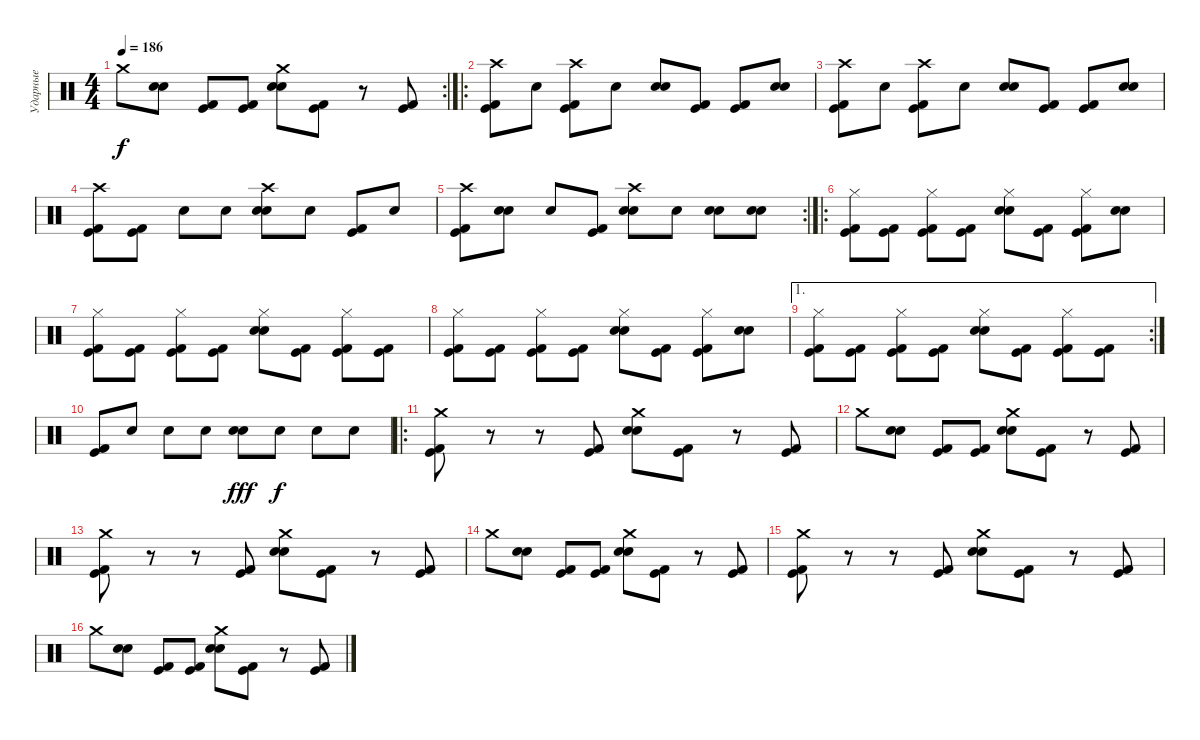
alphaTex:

\track ("Ударные" "Ударные") {instrument percussion}
\staff {score}
\articulation defaults
\rc 2
\ts (4 4)
\tempo 186
\clef neutral
\ks c "Crash medium (hit)".8{dy f}
("Electric Snare (hit)" "Snare (hit) 2").8 ("Kick (hit) 2" "Kick (hit)").8 ("Kick (hit) 2" "Kick (hit)").8 ("Electric Snare (hit)" "Snare (hit) 2" "Crash medium (hit)").8 ("Kick (hit) 2" "Kick (hit)").8 r.8 ("Kick (hit) 2" "Kick (hit)").8 |
\ro
("Kick (hit) 2" "Kick (hit)" "Crash high (hit)").8 "Snare (hit)".8 ("Kick (hit) 2" "Kick (hit)" "Crash high (hit)").8 "Snare (hit)".8 ("Electric Snare (hit)" "Snare (hit) 2").8 ("Kick (hit) 2" "Kick (hit)").8 ("Kick (hit) 2" "Kick (hit)").8 ("Electric Snare (hit)" "Snare (hit) 2").8 |
("Kick (hit) 2" "Kick (hit)" "Crash high (hit)").8 "Snare (hit)".8 ("Kick (hit) 2" "Kick (hit)" "Crash high (hit)").8 "Snare (hit)".8 ("Electric Snare (hit)" "Snare (hit) 2").8 ("Kick (hit) 2" "Kick (hit)").8 ("Kick (hit) 2" "Kick (hit)").8 ("Electric Snare (hit)" "Snare (hit) 2").8 |
("Kick (hit) 2" "Kick (hit)" "Crash high (hit)").8 ("Kick (hit) 2" "Kick (hit)").8 "Snare (hit)".8 "Snare (hit)".8 ("Electric Snare (hit)" "Snare (hit) 2" "Crash high (hit)").8 "Snare (hit)".8 ("Kick (hit) 2" "Kick (hit)").8 "Snare (hit)".8 |
\rc 2
("Kick (hit) 2" "Kick (hit)" "Crash high (hit)").8 ("Electric Snare (hit)" "Snare (hit) 2").8 "Snare (hit)".8 ("Kick (hit) 2" "Kick (hit)").8 ("Electric Snare (hit)" "Snare (hit) 2" "Crash high (hit)").8 "Snare (hit)".8 ("Electric Snare (hit)" "Snare (hit) 2").8 ("Electric Snare (hit)" "Snare (hit) 2").8 |
\ro
("Kick (hit) 2" "Kick (hit)" "Hi-Hat (closed)").8 ("Kick (hit) 2" "Kick (hit)").8 ("Kick (hit) 2" "Kick (hit)" "Hi-Hat (closed)").8 ("Kick (hit) 2" "Kick (hit)").8 ("Electric Snare (hit)" "Snare (hit) 2" "Hi-Hat (closed)").8 ("Kick (hit) 2" "Kick (hit)").8 ("Kick (hit) 2" "Kick (hit)" "Hi-Hat (closed)").8 ("Electric Snare (hit)" "Snare (hit) 2").8 |
("Kick (hit) 2" "Kick (hit)" "Hi-Hat (closed)").8 ("Kick (hit) 2" "Kick (hit)").8 ("Kick (hit) 2" "Kick (hit)" "Hi-Hat (closed)").8 ("Kick (hit) 2" "Kick (hit)").8 ("Electric Snare (hit)" "Snare (hit) 2" "Hi-Hat (closed)").8 ("Kick (hit) 2" "Kick (hit)").8 ("Kick (hit) 2" "Kick (hit)" "Hi-Hat (closed)").8 ("Kick (hit) 2" "Kick (hit)").8 |
("Kick (hit) 2" "Kick (hit)" "Hi-Hat (closed)").8 ("Kick (hit) 2" "Kick (hit)").8 ("Kick (hit) 2" "Kick (hit)" "Hi-Hat (closed)").8 ("Kick (hit) 2" "Kick (hit)").8 ("Electric Snare (hit)" "Snare (hit) 2" "Hi-Hat (closed)").8 ("Kick (hit) 2" "Kick (hit)").8 ("Kick (hit) 2" "Kick (hit)" "Hi-Hat (closed)").8 ("Electric Snare (hit)" "Snare (hit) 2").8 |
\ae 1
\rc 2
("Kick (hit) 2" "Kick (hit)" "Hi-Hat (closed)").8 ("Kick (hit) 2" "Kick (hit)").8 ("Kick (hit) 2" "Kick (hit)" "Hi-Hat (closed)").8 ("Kick (hit) 2" "Kick (hit)").8 ("Electric Snare (hit)" "Snare (hit) 2" "Hi-Hat (closed)").8 ("Kick (hit) 2" "Kick (hit)").8 ("Kick (hit) 2" "Kick (hit)" "Hi-Hat (closed)").8 ("Kick (hit) 2" "Kick (hit)").8 |
("Kick (hit) 2" "Kick (hit)").8 "Snare (hit)".8 "Snare (hit)".8 "Snare (hit)".8 ("Electric Snare (hit)" "Snare (hit) 2").8{dy fff} "Snare (hit)".8{dy f} "Snare (hit)".8 "Snare (hit)".8 |
\ro
("Kick (hit) 2" "Kick (hit)" "Crash medium (hit)").8 r.8 r.8 ("Kick (hit) 2" "Kick (hit)").8 ("Electric Snare (hit)" "Snare (hit) 2" "Crash medium (hit)").8 ("Kick (hit) 2" "Kick (hit)").8 r.8 ("Kick (hit) 2" "Kick (hit)").8 |
"Crash medium (hit)".8 ("Electric Snare (hit)" "Snare (hit) 2").8 ("Kick (hit) 2" "Kick (hit)").8 ("Kick (hit) 2" "Kick (hit)").8 ("Electric Snare (hit)" "Snare (hit) 2" "Crash medium (hit)").8 ("Kick (hit) 2" "Kick (hit)").8 r.8 ("Kick (hit) 2" "Kick (hit)").8 |
("Kick (hit) 2" "Kick (hit)" "Crash medium (hit)").8 r.8 r.8 ("Kick (hit) 2" "Kick (hit)").8 ("Electric Snare (hit)" "Snare (hit) 2" "Crash medium (hit)").8 ("Kick (hit) 2" "Kick (hit)").8 r.8 ("Kick (hit) 2" "Kick (hit)").8 |
"Crash medium (hit)".8 ("Electric Snare (hit)" "Snare (hit) 2").8 ("Kick (hit) 2" "Kick (hit)").8 ("Kick (hit) 2" "Kick (hit)").8 ("Electric Snare (hit)" "Snare (hit) 2" "Crash medium (hit)").8 ("Kick (hit) 2" "Kick (hit)").8 r.8 ("Kick (hit) 2" "Kick (hit)").8 |
("Kick (hit) 2" "Kick (hit)" "Crash medium (hit)").8 r.8 r.8 ("Kick (hit) 2" "Kick (hit)").8 ("Electric Snare (hit)" "Snare (hit) 2" "Crash medium (hit)").8 ("Kick (hit) 2" "Kick (hit)").8 r.8 ("Kick (hit) 2" "Kick (hit)").8 |
"Crash medium (hit)".8 ("Electric Snare (hit)" "Snare (hit) 2").8 ("Kick (hit) 2" "Kick (hit)").8 ("Kick (hit) 2" "Kick (hit)").8 ("Electric Snare (hit)" "Snare (hit) 2" "Crash medium (hit)").8 ("Kick (hit) 2" "Kick (hit)").8 r.8 ("Kick (hit) 2" "Kick (hit)").8
